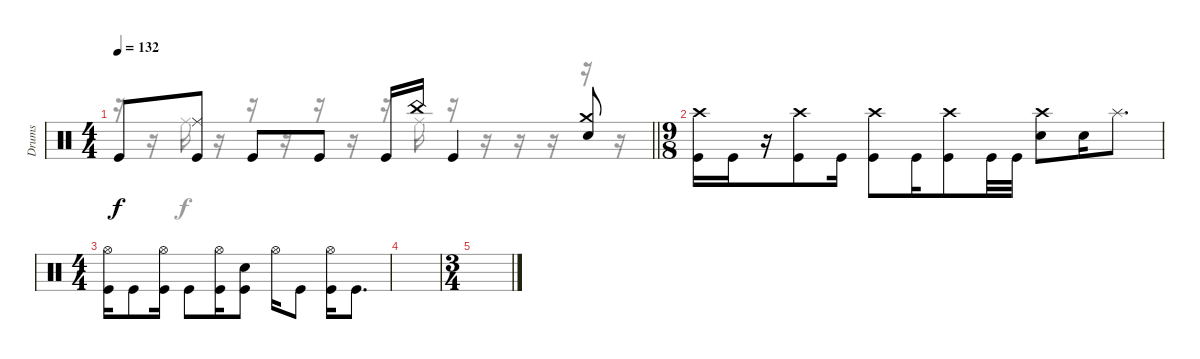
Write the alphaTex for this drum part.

\track ("Drums" "Drums") {instrument percussion}
\staff
\articulation defaults
\voice
\ts (4 4)
\tempo 132
\clef neutral
\barLineRight lightlight
\ks c "Kick (hit)".8{dy f}
("Ride (middle)" "Kick (hit)").8 "Kick (hit)".8 "Kick (hit)".8 "Kick (hit)".16 "China (hit)".16 "Kick (hit)".4 ("Crash medium (hit)" "Electric Snare (hit)").8 |
\ts (9 8)
\section ("" "")
("Crash high (hit)" "Kick (hit)").16 "Kick (hit)".16 r.16 ("Crash high (hit)" "Kick (hit)").8 "Kick (hit)".16 ("Crash high (hit)" "Kick (hit)").8 "Kick (hit)".16 ("Crash high (hit)" "Kick (hit)").8 "Kick (hit)".32 "Kick (hit)".32 ("Crash high (hit)" "Electric Snare (hit)").8 "Electric Snare (hit)".16 "Splash (hit)".8{d} |
\ts (4 4)
("Hi-Hat (open)" "Kick (hit)").16 "Kick (hit)".8 ("Hi-Hat (open)" "Kick (hit)").16 "Kick (hit)".8 ("Hi-Hat (open)" "Kick (hit)").16 ("Electric Snare (hit)" "Kick (hit)").8 "Hi-Hat (open)".16 "Kick (hit)".8 ("Hi-Hat (open)" "Kick (hit)").16 "Kick (hit)".8{d} |
|
\ts (3 4)
|
|
|
\voice
\clef neutral
\ottava regular
\simile none
\barLineRight lightlight
\ks c
r.16{dy f} r.16 "Ride (middle)".16 r.16 r.16 r.16 r.16 r.16 r.16 "Ride (middle)".16 r.16 r.16 r.16 r.16 r.16 r.16 |
|
|
|
|
|
|
